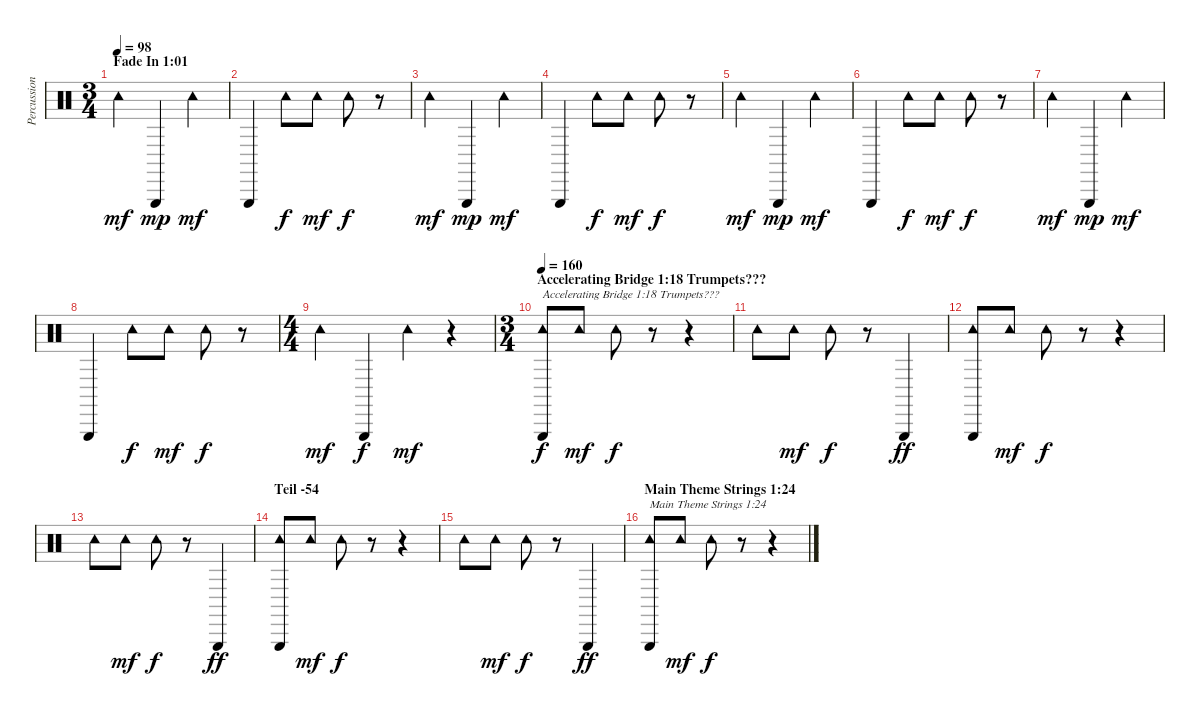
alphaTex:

\track ("Percussion" "Percussion") {instrument percussion}
\staff {score}
\articulation defaults
\ts (3 4)
\section ("" "Fade In 1:01")
\tempo 98
\clef neutral
\ks c "Tambourine (hit)".4{dy mf} "Triangle (hit)".4{dy mp} "Tambourine (hit)".4{dy mf}
|
"Triangle (hit)".4 "Tambourine (hit)".8{dy f} "Tambourine (hit)".8{dy mf} "Tambourine (hit)".8{dy f} r.8 |
"Tambourine (hit)".4{dy mf} "Triangle (hit)".4{dy mp} "Tambourine (hit)".4{dy mf} |
"Triangle (hit)".4 "Tambourine (hit)".8{dy f} "Tambourine (hit)".8{dy mf} "Tambourine (hit)".8{dy f} r.8 |
"Tambourine (hit)".4{dy mf} "Triangle (hit)".4{dy mp} "Tambourine (hit)".4{dy mf} |
"Triangle (hit)".4 "Tambourine (hit)".8{dy f} "Tambourine (hit)".8{dy mf} "Tambourine (hit)".8{dy f} r.8 |
"Tambourine (hit)".4{dy mf} "Triangle (hit)".4{dy mp} "Tambourine (hit)".4{dy mf} |
"Triangle (hit)".4 "Tambourine (hit)".8{dy f} "Tambourine (hit)".8{dy mf} "Tambourine (hit)".8{dy f} r.8 |
\ts (4 4)
"Tambourine (hit)".4{dy mf} "Triangle (hit)".4{dy f} "Tambourine (hit)".4{dy mf} r.4 |
\ts (3 4)
\section ("" "Accelerating Bridge 1:18 Trumpets???")
\tempo 160
("Tambourine (hit)" "Triangle (hit)").8{txt "Accelerating Bridge 1:18 Trumpets???" dy f volume 9} "Tambourine (hit)".8{dy mf} "Tambourine (hit)".8{dy f} r.8 r.4 |
"Tambourine (hit)".8 "Tambourine (hit)".8{dy mf} "Tambourine (hit)".8{dy f} r.8 "Triangle (hit)".4{dy ff} |
("Tambourine (hit)" "Triangle (hit)").8 "Tambourine (hit)".8{dy mf} "Tambourine (hit)".8{dy f} r.8 r.4 |
"Tambourine (hit)".8 "Tambourine (hit)".8{dy mf} "Tambourine (hit)".8{dy f} r.8 "Triangle (hit)".4{dy ff} |
\section ("" "Teil -54")
("Tambourine (hit)" "Triangle (hit)").8 "Tambourine (hit)".8{dy mf} "Tambourine (hit)".8{dy f} r.8 r.4 |
"Tambourine (hit)".8 "Tambourine (hit)".8{dy mf} "Tambourine (hit)".8{dy f} r.8 "Triangle (hit)".4{dy ff} |
\section ("" "Main Theme Strings 1:24")
("Tambourine (hit)" "Triangle (hit)").8{txt "Main Theme Strings 1:24"} "Tambourine (hit)".8{dy mf} "Tambourine (hit)".8{dy f} r.8 r.4
